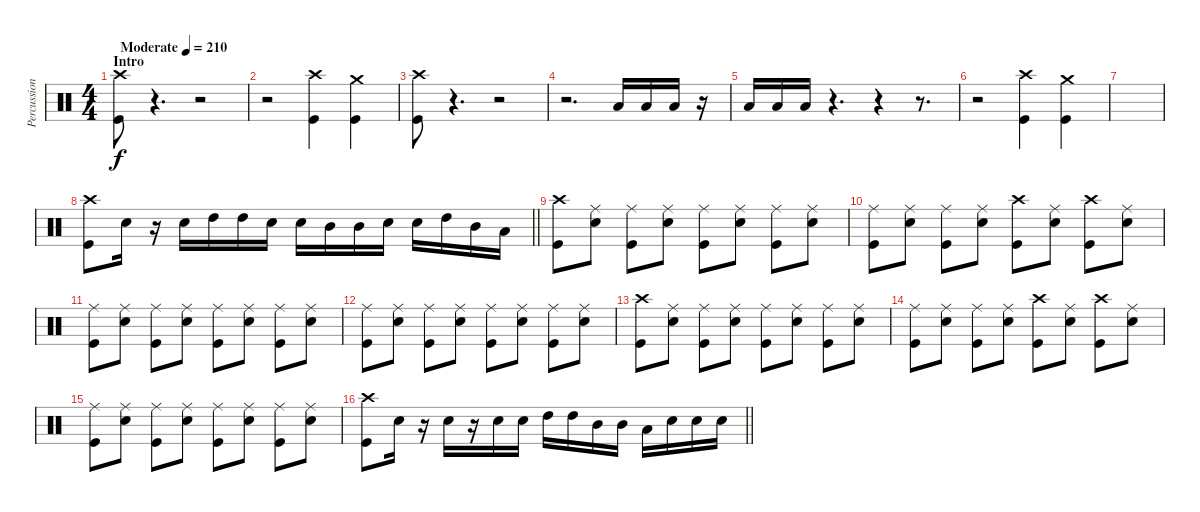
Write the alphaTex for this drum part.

\track ("Percussion" "Percussion") {instrument percussion}
\staff {score}
\articulation defaults
\ts (4 4)
\section ("" "Intro")
\tempo (210 "Moderate")
\clef neutral
\ks c
("Crash high (hit)" "Kick (hit)").8{dy f} r.4{d} r.2 |
r.2 ("Crash high (hit)" "Kick (hit)").4 ("Crash medium (hit)" "Kick (hit)").4 |
("Crash high (hit)" "Kick (hit)").8 r.4{d} r.2 |
r.2{d} "Low Floor Tom (hit)".16 "Low Floor Tom (hit)".16 "Low Floor Tom (hit)".16 r.16 |
"Low Floor Tom (hit)".16 "Low Floor Tom (hit)".16 "Low Floor Tom (hit)".16 r.4{d} r.4 r.8{d} |
r.2 ("Crash high (hit)" "Kick (hit)").4 ("Crash medium (hit)" "Kick (hit)").4 |
|
\barLineRight lightlight
("Crash high (hit)" "Kick (hit)").8 "Snare (hit) 2".16 r.16 "Snare (hit) 2".16 "High Tom (hit)".16 "High Tom (hit)".16 "Snare (hit) 2".16 "Snare (hit) 2".16 "Mid Tom (hit)".16 "Mid Tom (hit)".16 "Snare (hit) 2".16 "Snare (hit) 2".16 "High Tom (hit)".16 "Mid Tom (hit)".16 "Low Tom (hit)".16 |
\section ("" "")
("Crash high (hit)" "Kick (hit)").8 ("Ride (middle)" "Snare (hit) 2").8 ("Ride (middle)" "Kick (hit)").8 ("Ride (middle)" "Snare (hit) 2").8 ("Ride (middle)" "Kick (hit)").8 ("Ride (middle)" "Snare (hit) 2").8 ("Ride (middle)" "Kick (hit)").8 ("Ride (middle)" "Snare (hit) 2").8 |
("Ride (middle)" "Kick (hit)").8 ("Ride (middle)" "Snare (hit) 2").8 ("Ride (middle)" "Kick (hit)").8 ("Ride (middle)" "Snare (hit) 2").8 ("Crash high (hit)" "Kick (hit)").8 ("Ride (middle)" "Snare (hit) 2").8 ("Crash high (hit)" "Kick (hit)").8 ("Ride (middle)" "Snare (hit) 2").8 |
("Ride (middle)" "Kick (hit)").8 ("Ride (middle)" "Snare (hit) 2").8 ("Ride (middle)" "Kick (hit)").8 ("Ride (middle)" "Snare (hit) 2").8 ("Ride (middle)" "Kick (hit)").8 ("Ride (middle)" "Snare (hit) 2").8 ("Ride (middle)" "Kick (hit)").8 ("Ride (middle)" "Snare (hit) 2").8 |
("Ride (middle)" "Kick (hit)").8 ("Ride (middle)" "Snare (hit) 2").8 ("Ride (middle)" "Kick (hit)").8 ("Ride (middle)" "Snare (hit) 2").8 ("Ride (middle)" "Kick (hit)").8 ("Ride (middle)" "Snare (hit) 2").8 ("Ride (middle)" "Kick (hit)").8 ("Ride (middle)" "Snare (hit) 2").8 |
("Crash high (hit)" "Kick (hit)").8 ("Ride (middle)" "Snare (hit) 2").8 ("Ride (middle)" "Kick (hit)").8 ("Ride (middle)" "Snare (hit) 2").8 ("Ride (middle)" "Kick (hit)").8 ("Ride (middle)" "Snare (hit) 2").8 ("Ride (middle)" "Kick (hit)").8 ("Ride (middle)" "Snare (hit) 2").8 |
("Ride (middle)" "Kick (hit)").8 ("Ride (middle)" "Snare (hit) 2").8 ("Ride (middle)" "Kick (hit)").8 ("Ride (middle)" "Snare (hit) 2").8 ("Crash high (hit)" "Kick (hit)").8 ("Ride (middle)" "Snare (hit) 2").8 ("Crash high (hit)" "Kick (hit)").8 ("Ride (middle)" "Snare (hit) 2").8 |
("Ride (middle)" "Kick (hit)").8 ("Ride (middle)" "Snare (hit) 2").8 ("Ride (middle)" "Kick (hit)").8 ("Ride (middle)" "Snare (hit) 2").8 ("Ride (middle)" "Kick (hit)").8 ("Ride (middle)" "Snare (hit) 2").8 ("Ride (middle)" "Kick (hit)").8 ("Ride (middle)" "Snare (hit) 2").8 |
\barLineRight lightlight
("Crash high (hit)" "Kick (hit)").8 "Snare (hit) 2".16 r.16 "Snare (hit) 2".16 r.16 "Snare (hit) 2".16 "Snare (hit) 2".16 "High Tom (hit)".16 "High Tom (hit)".16 "Mid Tom (hit)".16 "Mid Tom (hit)".16 "Low Tom (hit)".16 "Snare (hit) 2".16 "Snare (hit) 2".16 "Snare (hit) 2".16
